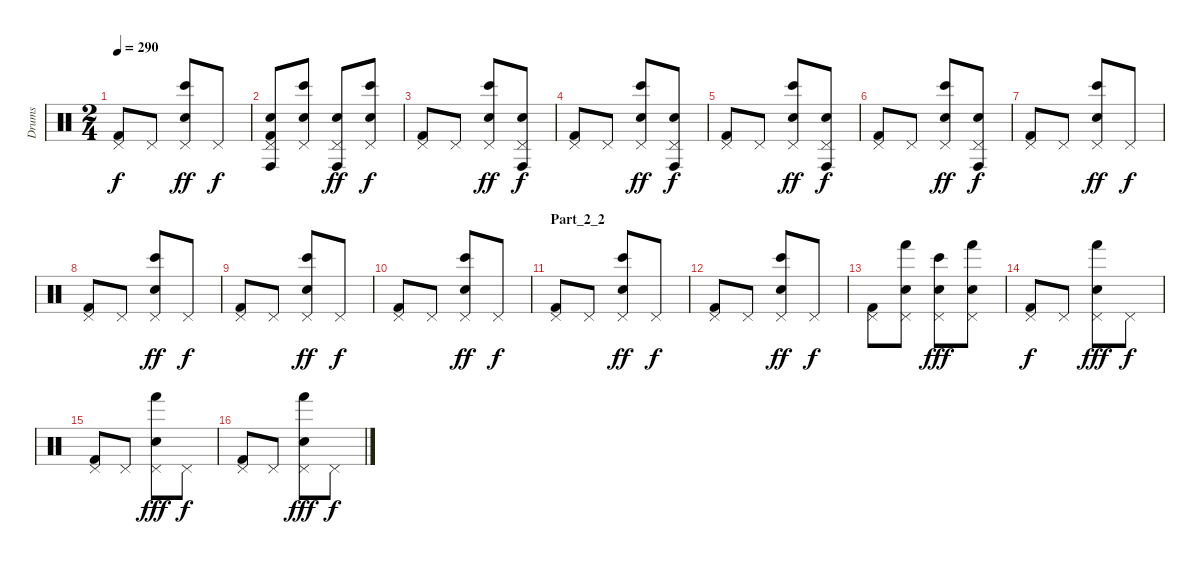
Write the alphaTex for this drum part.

\track ("Drums" "Drums") {instrument percussion}
\staff {score}
\articulation defaults
\ts (2 4)
\tempo 290
\clef neutral
\ks c
("Pedal Hi-Hat (hit)" "Kick (hit) 2").8{dy f} "Pedal Hi-Hat (hit)".8 ("Pedal Hi-Hat (hit)" "Bongo High (hit)" "Electric Snare (hit)").8{dy ff} "Pedal Hi-Hat (hit)".8{dy f} |
("Pedal Hi-Hat (hit)" "Conga high (hit)" "Electric Snare (hit)" "Kick (hit) 2").8 ("Pedal Hi-Hat (hit)" "Bongo High (hit)" "Electric Snare (hit)").8 ("Pedal Hi-Hat (hit)" "Conga high (hit)" "Electric Snare (hit)").8{dy ff} ("Pedal Hi-Hat (hit)" "Bongo High (hit)" "Electric Snare (hit)").8{dy f} |
("Pedal Hi-Hat (hit)" "Kick (hit) 2").8 "Pedal Hi-Hat (hit)".8 ("Pedal Hi-Hat (hit)" "Bongo High (hit)" "Electric Snare (hit)").8{dy ff} ("Pedal Hi-Hat (hit)" "Conga high (hit)" "Electric Snare (hit)").8{dy f} |
("Pedal Hi-Hat (hit)" "Kick (hit) 2").8 "Pedal Hi-Hat (hit)".8 ("Pedal Hi-Hat (hit)" "Bongo High (hit)" "Electric Snare (hit)").8{dy ff} ("Pedal Hi-Hat (hit)" "Conga high (hit)" "Electric Snare (hit)").8{dy f} |
("Pedal Hi-Hat (hit)" "Kick (hit) 2").8 "Pedal Hi-Hat (hit)".8 ("Pedal Hi-Hat (hit)" "Bongo High (hit)" "Electric Snare (hit)").8{dy ff} ("Pedal Hi-Hat (hit)" "Conga high (hit)" "Electric Snare (hit)").8{dy f} |
("Pedal Hi-Hat (hit)" "Kick (hit) 2").8 "Pedal Hi-Hat (hit)".8 ("Pedal Hi-Hat (hit)" "Bongo High (hit)" "Electric Snare (hit)").8{dy ff} ("Pedal Hi-Hat (hit)" "Conga high (hit)" "Electric Snare (hit)").8{dy f} |
("Pedal Hi-Hat (hit)" "Kick (hit) 2").8 "Pedal Hi-Hat (hit)".8 ("Pedal Hi-Hat (hit)" "Bongo High (hit)" "Electric Snare (hit)").8{dy ff} "Pedal Hi-Hat (hit)".8{dy f} |
("Pedal Hi-Hat (hit)" "Kick (hit) 2").8 "Pedal Hi-Hat (hit)".8 ("Pedal Hi-Hat (hit)" "Bongo High (hit)" "Electric Snare (hit)").8{dy ff} "Pedal Hi-Hat (hit)".8{dy f} |
("Pedal Hi-Hat (hit)" "Kick (hit) 2").8 "Pedal Hi-Hat (hit)".8 ("Pedal Hi-Hat (hit)" "Bongo High (hit)" "Electric Snare (hit)").8{dy ff} "Pedal Hi-Hat (hit)".8{dy f} |
("Pedal Hi-Hat (hit)" "Kick (hit) 2").8 "Pedal Hi-Hat (hit)".8 ("Pedal Hi-Hat (hit)" "Bongo High (hit)" "Electric Snare (hit)").8{dy ff} "Pedal Hi-Hat (hit)".8{dy f} |
\section ("" "Part_2_2")
("Pedal Hi-Hat (hit)" "Kick (hit) 2").8 "Pedal Hi-Hat (hit)".8 ("Pedal Hi-Hat (hit)" "Bongo High (hit)" "Electric Snare (hit)").8{dy ff} "Pedal Hi-Hat (hit)".8{dy f} |
("Pedal Hi-Hat (hit)" "Kick (hit) 2").8 "Pedal Hi-Hat (hit)".8 ("Pedal Hi-Hat (hit)" "Bongo High (hit)" "Electric Snare (hit)").8{dy ff} "Pedal Hi-Hat (hit)".8{dy f} |
("Pedal Hi-Hat (hit)" "Kick (hit) 2").8 ("Pedal Hi-Hat (hit)" "Hand (hit)" "Electric Snare (hit)").8 ("Pedal Hi-Hat (hit)" "Bongo High (hit)" "Electric Snare (hit)").8{dy fff} ("Pedal Hi-Hat (hit)" "Hand (hit)" "Electric Snare (hit)").8 |
("Pedal Hi-Hat (hit)" "Kick (hit) 2").8{dy f} "Pedal Hi-Hat (hit)".8 ("Pedal Hi-Hat (hit)" "Hand (hit)" "Electric Snare (hit)").8{dy fff} "Pedal Hi-Hat (hit)".8{dy f} |
("Pedal Hi-Hat (hit)" "Kick (hit) 2").8 "Pedal Hi-Hat (hit)".8 ("Pedal Hi-Hat (hit)" "Hand (hit)" "Electric Snare (hit)").8{dy fff} "Pedal Hi-Hat (hit)".8{dy f} |
("Pedal Hi-Hat (hit)" "Kick (hit) 2").8 "Pedal Hi-Hat (hit)".8 ("Pedal Hi-Hat (hit)" "Hand (hit)" "Electric Snare (hit)").8{dy fff} "Pedal Hi-Hat (hit)".8{dy f}
